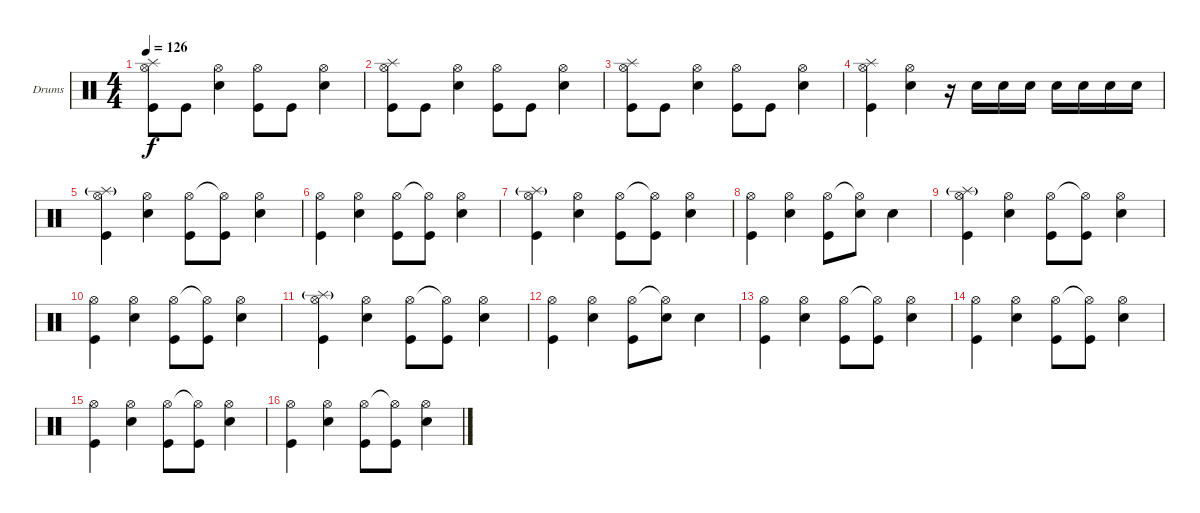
\bracketExtendMode groupsimilarinstruments
\firstSystemTrackNameOrientation horizontal
\otherSystemsTrackNameOrientation horizontal
\track ("Drumkit" "Drums") {instrument percussion}
\staff {score}
\articulation defaults
\ts (4 4)
\tempo 126
\clef neutral
\ks c
("Kick (hit)" "Hi-Hat (open)" "Splash (hit)").8{dy f} "Kick (hit)".8 ("Snare (hit) 2" "Hi-Hat (open)").4 ("Kick (hit)" "Hi-Hat (open)").8 "Kick (hit)".8 ("Snare (hit) 2" "Hi-Hat (open)").4 |
("Kick (hit)" "Hi-Hat (open)" "Splash (hit)").8 "Kick (hit)".8 ("Snare (hit) 2" "Hi-Hat (open)").4 ("Kick (hit)" "Hi-Hat (open)").8 "Kick (hit)".8 ("Snare (hit) 2" "Hi-Hat (open)").4 |
("Kick (hit)" "Hi-Hat (open)" "Splash (hit)").8 "Kick (hit)".8 ("Snare (hit) 2" "Hi-Hat (open)").4 ("Kick (hit)" "Hi-Hat (open)").8 "Kick (hit)".8 ("Snare (hit) 2" "Hi-Hat (open)").4 |
("Kick (hit)" "Hi-Hat (open)" "Splash (hit)").4 ("Snare (hit) 2" "Hi-Hat (open)").4 r.16 "Snare (hit) 2".16 "Snare (hit) 2".16 "Snare (hit) 2".16 "Snare (hit) 2".16 "Snare (hit) 2".16 "Snare (hit) 2".16 "Snare (hit) 2".16 |
("Kick (hit)" "Hi-Hat (open)" "Splash (hit)"{g}).4 ("Snare (hit) 2" "Hi-Hat (open)").4 ("Kick (hit)" "Hi-Hat (open)").8 ("Kick (hit)" "Hi-Hat (open)"{t}).8 ("Snare (hit) 2" "Hi-Hat (open)").4 |
("Kick (hit)" "Hi-Hat (open)").4 ("Snare (hit) 2" "Hi-Hat (open)").4 ("Kick (hit)" "Hi-Hat (open)").8 ("Kick (hit)" "Hi-Hat (open)"{t}).8 ("Snare (hit) 2" "Hi-Hat (open)").4 |
("Kick (hit)" "Hi-Hat (open)" "Splash (hit)"{g}).4 ("Snare (hit) 2" "Hi-Hat (open)").4 ("Kick (hit)" "Hi-Hat (open)").8 ("Kick (hit)" "Hi-Hat (open)"{t}).8 ("Snare (hit) 2" "Hi-Hat (open)").4 |
("Kick (hit)" "Hi-Hat (open)").4 ("Snare (hit) 2" "Hi-Hat (open)").4 ("Kick (hit)" "Hi-Hat (open)").8 ("Snare (hit) 2" "Hi-Hat (open)"{t}).8 "Snare (hit) 2".4 |
("Kick (hit)" "Hi-Hat (open)" "Splash (hit)"{g}).4 ("Snare (hit) 2" "Hi-Hat (open)").4 ("Kick (hit)" "Hi-Hat (open)").8 ("Kick (hit)" "Hi-Hat (open)"{t}).8 ("Snare (hit) 2" "Hi-Hat (open)").4 |
("Kick (hit)" "Hi-Hat (open)").4 ("Snare (hit) 2" "Hi-Hat (open)").4 ("Kick (hit)" "Hi-Hat (open)").8 ("Kick (hit)" "Hi-Hat (open)"{t}).8 ("Snare (hit) 2" "Hi-Hat (open)").4 |
("Kick (hit)" "Hi-Hat (open)" "Splash (hit)"{g}).4 ("Snare (hit) 2" "Hi-Hat (open)").4 ("Kick (hit)" "Hi-Hat (open)").8 ("Kick (hit)" "Hi-Hat (open)"{t}).8 ("Snare (hit) 2" "Hi-Hat (open)").4 |
("Kick (hit)" "Hi-Hat (open)").4 ("Snare (hit) 2" "Hi-Hat (open)").4 ("Kick (hit)" "Hi-Hat (open)").8 ("Snare (hit) 2" "Hi-Hat (open)"{t}).8 "Snare (hit) 2".4 |
("Kick (hit)" "Hi-Hat (open)").4 ("Snare (hit) 2" "Hi-Hat (open)").4 ("Kick (hit)" "Hi-Hat (open)").8 ("Kick (hit)" "Hi-Hat (open)"{t}).8 ("Snare (hit) 2" "Hi-Hat (open)").4 |
("Kick (hit)" "Hi-Hat (open)").4 ("Snare (hit) 2" "Hi-Hat (open)").4 ("Kick (hit)" "Hi-Hat (open)").8 ("Kick (hit)" "Hi-Hat (open)"{t}).8 ("Snare (hit) 2" "Hi-Hat (open)").4 |
("Kick (hit)" "Hi-Hat (open)").4 ("Snare (hit) 2" "Hi-Hat (open)").4 ("Kick (hit)" "Hi-Hat (open)").8 ("Kick (hit)" "Hi-Hat (open)"{t}).8 ("Snare (hit) 2" "Hi-Hat (open)").4 |
("Kick (hit)" "Hi-Hat (open)").4 ("Snare (hit) 2" "Hi-Hat (open)").4 ("Kick (hit)" "Hi-Hat (open)").8 ("Kick (hit)" "Hi-Hat (open)"{t}).8 ("Snare (hit) 2" "Hi-Hat (open)").4
